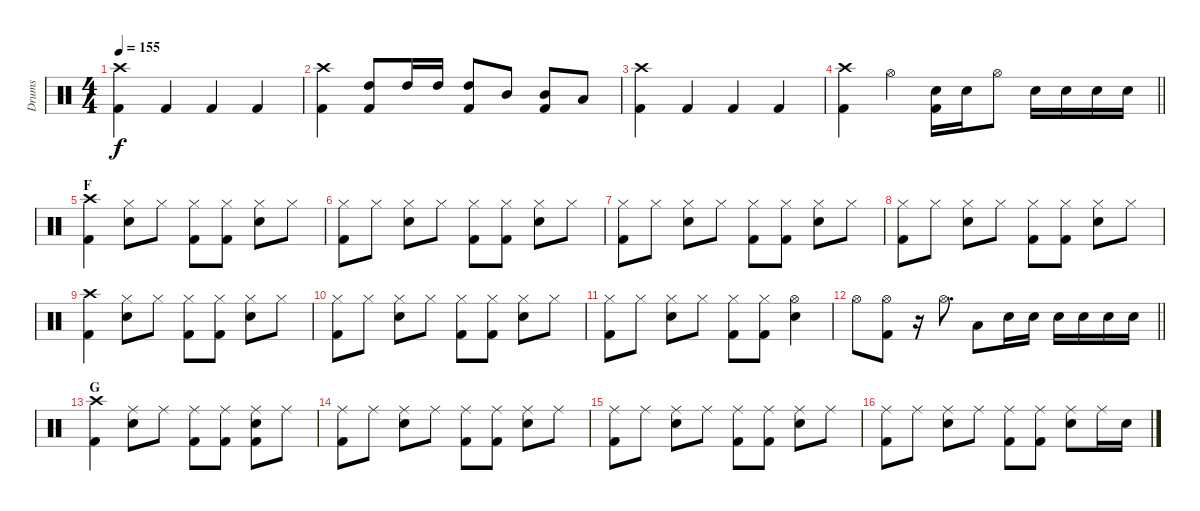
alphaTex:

\track ("Drums" "Drums") {instrument percussion}
\staff {score}
\articulation defaults
\ts (4 4)
\tempo 155
\clef neutral
\ks c
("Crash high (hit)" "Kick (hit) 2").4{dy f} "Kick (hit) 2".4 "Kick (hit) 2".4 "Kick (hit) 2".4 |
("Crash high (hit)" "Kick (hit) 2").4 ("High Tom (hit)" "Kick (hit) 2").8 "High Tom (hit)".16 "High Tom (hit)".16 ("High Tom (hit)" "Kick (hit) 2").8 "Mid Tom (hit)".8 ("Mid Tom (hit)" "Kick (hit) 2").8 "Low Tom (hit)".8 |
("Crash high (hit)" "Kick (hit) 2").4 "Kick (hit) 2".4 "Kick (hit) 2".4 "Kick (hit) 2".4 |
\barLineRight lightlight
("Crash high (hit)" "Kick (hit) 2").4 "Hi-Hat (open)".4 ("Snare (hit) 2" "Kick (hit) 2").16 "Snare (hit) 2".16 "Hi-Hat (open)".8 "Snare (hit) 2".16 "Snare (hit) 2".16 "Snare (hit) 2".16 "Snare (hit) 2".16 |
\section ("" "F")
("Crash high (hit)" "Kick (hit) 2").4 ("Hi-Hat (closed)" "Snare (hit) 2").8 "Hi-Hat (closed)".8 ("Hi-Hat (closed)" "Kick (hit) 2").8 ("Hi-Hat (closed)" "Kick (hit) 2").8 ("Hi-Hat (closed)" "Snare (hit) 2").8 "Hi-Hat (closed)".8 |
("Hi-Hat (closed)" "Kick (hit) 2").8 "Hi-Hat (closed)".8 ("Hi-Hat (closed)" "Snare (hit) 2").8 "Hi-Hat (closed)".8 ("Hi-Hat (closed)" "Kick (hit) 2").8 ("Hi-Hat (closed)" "Kick (hit) 2").8 ("Hi-Hat (closed)" "Snare (hit) 2").8 "Hi-Hat (closed)".8 |
("Hi-Hat (closed)" "Kick (hit) 2").8 "Hi-Hat (closed)".8 ("Hi-Hat (closed)" "Snare (hit) 2").8 "Hi-Hat (closed)".8 ("Hi-Hat (closed)" "Kick (hit) 2").8 ("Hi-Hat (closed)" "Kick (hit) 2").8 ("Hi-Hat (closed)" "Snare (hit) 2").8 "Hi-Hat (closed)".8 |
("Hi-Hat (closed)" "Kick (hit) 2").8 "Hi-Hat (closed)".8 ("Hi-Hat (closed)" "Snare (hit) 2").8 "Hi-Hat (closed)".8 ("Hi-Hat (closed)" "Kick (hit) 2").8 ("Hi-Hat (closed)" "Kick (hit) 2").8 ("Hi-Hat (closed)" "Snare (hit) 2").8 "Hi-Hat (closed)".8 |
("Crash high (hit)" "Kick (hit) 2").4 ("Hi-Hat (closed)" "Snare (hit) 2").8 "Hi-Hat (closed)".8 ("Hi-Hat (closed)" "Kick (hit) 2").8 ("Hi-Hat (closed)" "Kick (hit) 2").8 ("Hi-Hat (closed)" "Snare (hit) 2").8 "Hi-Hat (closed)".8 |
("Hi-Hat (closed)" "Kick (hit) 2").8 "Hi-Hat (closed)".8 ("Hi-Hat (closed)" "Snare (hit) 2").8 "Hi-Hat (closed)".8 ("Hi-Hat (closed)" "Kick (hit) 2").8 ("Hi-Hat (closed)" "Kick (hit) 2").8 ("Hi-Hat (closed)" "Snare (hit) 2").8 "Hi-Hat (closed)".8 |
("Hi-Hat (closed)" "Kick (hit) 2").8 "Hi-Hat (closed)".8 ("Hi-Hat (closed)" "Snare (hit) 2").8 "Hi-Hat (closed)".8 ("Hi-Hat (closed)" "Kick (hit) 2").8 ("Hi-Hat (closed)" "Kick (hit) 2").8 ("Hi-Hat (open)" "Snare (hit) 2").4 |
\barLineRight lightlight "Hi-Hat (open)".8
("Hi-Hat (open)" "Kick (hit) 2").8 r.16 "Hi-Hat (open)".8{d} "Low Tom (hit)".8 "Snare (hit) 2".16 "Snare (hit) 2".16 "Snare (hit) 2".16 "Snare (hit) 2".16 "Snare (hit) 2".16 "Snare (hit) 2".16 |
\section ("" "G")
("Crash high (hit)" "Kick (hit) 2").4 ("Ride (middle)" "Snare (hit) 2").8 "Ride (middle)".8 ("Ride (middle)" "Kick (hit) 2").8 ("Ride (middle)" "Kick (hit) 2").8 ("Ride (middle)" "Snare (hit) 2" "Kick (hit) 2").8 "Ride (middle)".8 |
("Ride (middle)" "Kick (hit) 2").8 "Ride (middle)".8 ("Ride (middle)" "Snare (hit) 2").8 "Ride (middle)".8 ("Ride (middle)" "Kick (hit) 2").8 ("Ride (middle)" "Kick (hit) 2").8 ("Ride (middle)" "Snare (hit) 2").8 "Ride (middle)".8 |
("Ride (middle)" "Kick (hit) 2").8 "Ride (middle)".8 ("Ride (middle)" "Snare (hit) 2").8 "Ride (middle)".8 ("Ride (middle)" "Kick (hit) 2").8 ("Ride (middle)" "Kick (hit) 2").8 ("Ride (middle)" "Snare (hit) 2").8 "Ride (middle)".8 |
("Ride (middle)" "Kick (hit) 2").8 "Ride (middle)".8 ("Ride (middle)" "Snare (hit) 2").8 "Ride (middle)".8 ("Ride (middle)" "Kick (hit) 2").8 ("Ride (middle)" "Kick (hit) 2").8 ("Ride (middle)" "Snare (hit) 2").8 "Ride (middle)".16 "Snare (hit) 2".16
